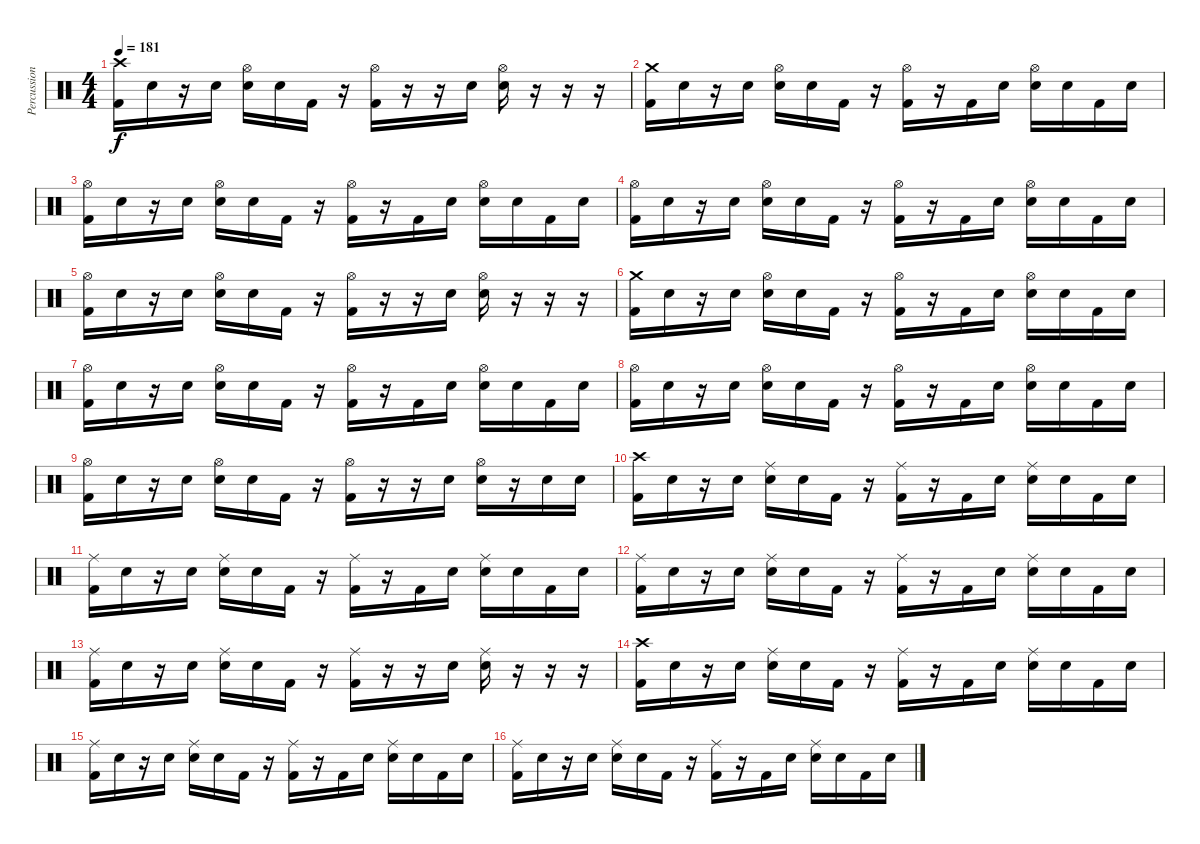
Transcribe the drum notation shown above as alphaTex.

\track ("Percussion" "Percussion") {instrument percussion}
\staff {score}
\articulation defaults
\ts (4 4)
\tempo 181
\clef neutral
\ks c
("Kick (hit) 2" "Crash high (hit)").16{dy f} "Snare (hit)"{x}.16 r.16 "Snare (hit)"{x}.16 ("Electric Snare (hit)" "Hi-Hat (open)").16 "Snare (hit)"{x}.16 "Kick (hit) 2".16 r.16 ("Kick (hit) 2" "Hi-Hat (open)").16 r.16 r.16 "Snare (hit)"{x}.16 ("Electric Snare (hit)" "Hi-Hat (open)").16 r.16 r.16 r.16 |
("Kick (hit) 2" "Crash medium (hit)").16 "Snare (hit)"{x}.16 r.16 "Snare (hit)"{x}.16 ("Electric Snare (hit)" "Hi-Hat (open)").16 "Snare (hit)"{x}.16 "Kick (hit) 2".16 r.16 ("Kick (hit) 2" "Hi-Hat (open)").16 r.16 "Kick (hit) 2".16 "Snare (hit)"{x}.16 ("Electric Snare (hit)" "Hi-Hat (open)").16 "Snare (hit)"{x}.16 "Kick (hit) 2".16 "Snare (hit)"{x}.16 |
("Kick (hit) 2" "Hi-Hat (open)").16 "Snare (hit)"{x}.16 r.16 "Snare (hit)"{x}.16 ("Electric Snare (hit)" "Hi-Hat (open)").16 "Snare (hit)"{x}.16 "Kick (hit) 2".16 r.16 ("Kick (hit) 2" "Hi-Hat (open)").16 r.16 "Kick (hit) 2".16 "Snare (hit)"{x}.16 ("Electric Snare (hit)" "Hi-Hat (open)").16 "Snare (hit)"{x}.16 "Kick (hit) 2".16 "Snare (hit)"{x}.16 |
("Kick (hit) 2" "Hi-Hat (open)").16 "Snare (hit)"{x}.16 r.16 "Snare (hit)"{x}.16 ("Electric Snare (hit)" "Hi-Hat (open)").16 "Snare (hit)"{x}.16 "Kick (hit) 2".16 r.16 ("Kick (hit) 2" "Hi-Hat (open)").16 r.16 "Kick (hit) 2".16 "Snare (hit)"{x}.16 ("Electric Snare (hit)" "Hi-Hat (open)").16 "Snare (hit)"{x}.16 "Kick (hit) 2".16 "Snare (hit)"{x}.16 |
("Kick (hit) 2" "Hi-Hat (open)").16 "Snare (hit)"{x}.16 r.16 "Snare (hit)"{x}.16 ("Electric Snare (hit)" "Hi-Hat (open)").16 "Snare (hit)"{x}.16 "Kick (hit) 2".16 r.16 ("Kick (hit) 2" "Hi-Hat (open)").16 r.16 r.16 "Snare (hit)"{x}.16 ("Electric Snare (hit)" "Hi-Hat (open)").16 r.16 r.16 r.16 |
("Kick (hit) 2" "Crash medium (hit)").16 "Snare (hit)"{x}.16 r.16 "Snare (hit)"{x}.16 ("Electric Snare (hit)" "Hi-Hat (open)").16 "Snare (hit)"{x}.16 "Kick (hit) 2".16 r.16 ("Kick (hit) 2" "Hi-Hat (open)").16 r.16 "Kick (hit) 2".16 "Snare (hit)"{x}.16 ("Electric Snare (hit)" "Hi-Hat (open)").16 "Snare (hit)"{x}.16 "Kick (hit) 2".16 "Snare (hit)"{x}.16 |
("Kick (hit) 2" "Hi-Hat (open)").16 "Snare (hit)"{x}.16 r.16 "Snare (hit)"{x}.16 ("Electric Snare (hit)" "Hi-Hat (open)").16 "Snare (hit)"{x}.16 "Kick (hit) 2".16 r.16 ("Kick (hit) 2" "Hi-Hat (open)").16 r.16 "Kick (hit) 2".16 "Snare (hit)"{x}.16 ("Electric Snare (hit)" "Hi-Hat (open)").16 "Snare (hit)"{x}.16 "Kick (hit) 2".16 "Snare (hit)"{x}.16 |
("Kick (hit) 2" "Hi-Hat (open)").16 "Snare (hit)"{x}.16 r.16 "Snare (hit)"{x}.16 ("Electric Snare (hit)" "Hi-Hat (open)").16 "Snare (hit)"{x}.16 "Kick (hit) 2".16 r.16 ("Kick (hit) 2" "Hi-Hat (open)").16 r.16 "Kick (hit) 2".16 "Snare (hit)"{x}.16 ("Electric Snare (hit)" "Hi-Hat (open)").16 "Snare (hit)"{x}.16 "Kick (hit) 2".16 "Snare (hit)"{x}.16 |
("Kick (hit) 2" "Hi-Hat (open)").16 "Snare (hit)"{x}.16 r.16 "Snare (hit)"{x}.16 ("Electric Snare (hit)" "Hi-Hat (open)").16 "Snare (hit)"{x}.16 "Kick (hit) 2".16 r.16 ("Kick (hit) 2" "Hi-Hat (open)").16 r.16 r.16 "Snare (hit)"{x}.16 ("Electric Snare (hit)" "Hi-Hat (open)").16 r.16 "Electric Snare (hit)".16 "Electric Snare (hit)".16 |
("Kick (hit) 2" "Crash high (hit)").16 "Snare (hit)"{x}.16 r.16 "Snare (hit)"{x}.16 ("Electric Snare (hit)" "Ride (middle)").16 "Snare (hit)"{x}.16 "Kick (hit) 2".16 r.16 ("Kick (hit) 2" "Ride (middle)").16 r.16 "Kick (hit) 2".16 "Snare (hit)"{x}.16 ("Electric Snare (hit)" "Ride (middle)").16 "Snare (hit)"{x}.16 "Kick (hit) 2".16 "Snare (hit)"{x}.16 |
("Kick (hit) 2" "Ride (middle)").16 "Snare (hit)"{x}.16 r.16 "Snare (hit)"{x}.16 ("Electric Snare (hit)" "Ride (middle)").16 "Snare (hit)"{x}.16 "Kick (hit) 2".16 r.16 ("Kick (hit) 2" "Ride (middle)").16 r.16 "Kick (hit) 2".16 "Snare (hit)"{x}.16 ("Electric Snare (hit)" "Ride (middle)").16 "Snare (hit)"{x}.16 "Kick (hit) 2".16 "Snare (hit)"{x}.16 |
("Kick (hit) 2" "Ride (middle)").16 "Snare (hit)"{x}.16 r.16 "Snare (hit)"{x}.16 ("Electric Snare (hit)" "Ride (middle)").16 "Snare (hit)"{x}.16 "Kick (hit) 2".16 r.16 ("Kick (hit) 2" "Ride (middle)").16 r.16 "Kick (hit) 2".16 "Snare (hit)"{x}.16 ("Electric Snare (hit)" "Ride (middle)").16 "Snare (hit)"{x}.16 "Kick (hit) 2".16 "Snare (hit)"{x}.16 |
("Kick (hit) 2" "Ride (middle)").16 "Snare (hit)"{x}.16 r.16 "Snare (hit)"{x}.16 ("Electric Snare (hit)" "Ride (middle)").16 "Snare (hit)"{x}.16 "Kick (hit) 2".16 r.16 ("Kick (hit) 2" "Ride (middle)").16 r.16 r.16 "Snare (hit)"{x}.16 ("Electric Snare (hit)" "Ride (middle)").16 r.16 r.16 r.16 |
("Kick (hit) 2" "Crash high (hit)").16 "Snare (hit)"{x}.16 r.16 "Snare (hit)"{x}.16 ("Electric Snare (hit)" "Ride (middle)").16 "Snare (hit)"{x}.16 "Kick (hit) 2".16 r.16 ("Kick (hit) 2" "Ride (middle)").16 r.16 "Kick (hit) 2".16 "Snare (hit)"{x}.16 ("Electric Snare (hit)" "Ride (middle)").16 "Snare (hit)"{x}.16 "Kick (hit) 2".16 "Snare (hit)"{x}.16 |
("Kick (hit) 2" "Ride (middle)").16 "Snare (hit)"{x}.16 r.16 "Snare (hit)"{x}.16 ("Electric Snare (hit)" "Ride (middle)").16 "Snare (hit)"{x}.16 "Kick (hit) 2".16 r.16 ("Kick (hit) 2" "Ride (middle)").16 r.16 "Kick (hit) 2".16 "Snare (hit)"{x}.16 ("Electric Snare (hit)" "Ride (middle)").16 "Snare (hit)"{x}.16 "Kick (hit) 2".16 "Snare (hit)"{x}.16 |
("Kick (hit) 2" "Ride (middle)").16 "Snare (hit)"{x}.16 r.16 "Snare (hit)"{x}.16 ("Electric Snare (hit)" "Ride (middle)").16 "Snare (hit)"{x}.16 "Kick (hit) 2".16 r.16 ("Kick (hit) 2" "Ride (middle)").16 r.16 "Kick (hit) 2".16 "Snare (hit)"{x}.16 ("Electric Snare (hit)" "Ride (middle)").16 "Snare (hit)"{x}.16 "Kick (hit) 2".16 "Snare (hit)"{x}.16
